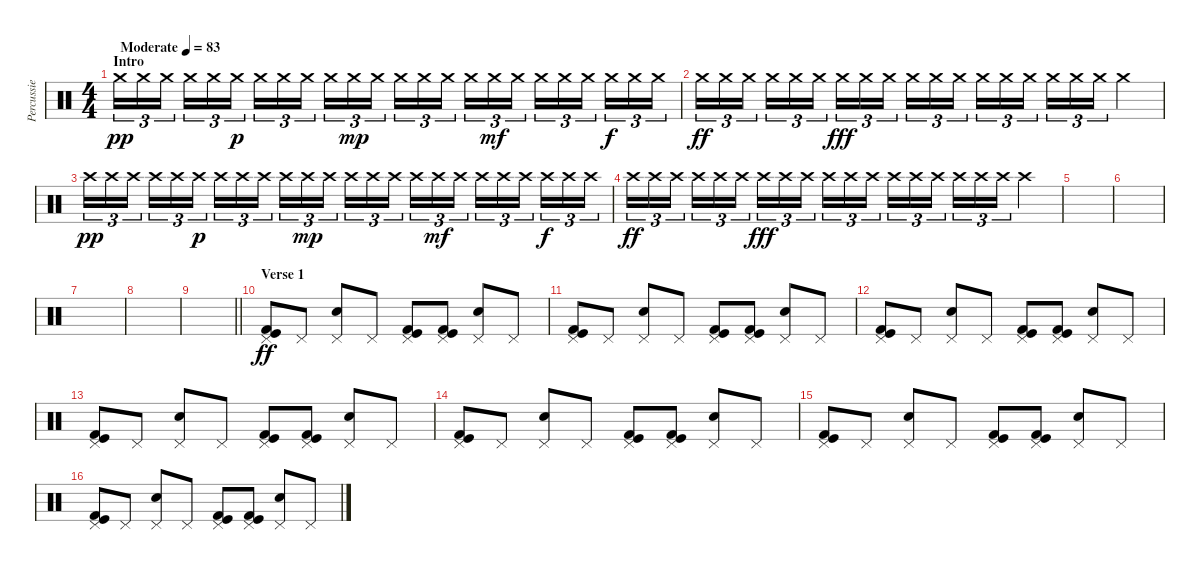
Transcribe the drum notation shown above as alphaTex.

\track ("Percussie" "Percussie") {instrument percussion}
\staff {score}
\articulation defaults
\ts (4 4)
\section ("" "Intro")
\tempo (83 "Moderate")
\clef neutral
\ks c "Crash medium (hit)".16{tu (3 2) dy pp} "Crash medium (hit)".16{tu (3 2)} "Crash medium (hit)".16{tu (3 2) beam splitsecondary} "Crash medium (hit)".16{tu (3 2)} "Crash medium (hit)".16{tu (3 2)} "Crash medium (hit)".16{tu (3 2) dy p} "Crash medium (hit)".16{tu (3 2)} "Crash medium (hit)".16{tu (3 2)} "Crash medium (hit)".16{tu (3 2) beam splitsecondary} "Crash medium (hit)".16{tu (3 2)} "Crash medium (hit)".16{tu (3 2) dy mp} "Crash medium (hit)".16{tu (3 2)} "Crash medium (hit)".16{tu (3 2)} "Crash medium (hit)".16{tu (3 2)} "Crash medium (hit)".16{tu (3 2) beam splitsecondary} "Crash medium (hit)".16{tu (3 2)} "Crash medium (hit)".16{tu (3 2) dy mf} "Crash medium (hit)".16{tu (3 2)} "Crash medium (hit)".16{tu (3 2)} "Crash medium (hit)".16{tu (3 2)} "Crash medium (hit)".16{tu (3 2) beam splitsecondary} "Crash medium (hit)".16{tu (3 2) dy f} "Crash medium (hit)".16{tu (3 2)} "Crash medium (hit)".16{tu (3 2)}
|
"Crash medium (hit)".16{tu (3 2) dy ff} "Crash medium (hit)".16{tu (3 2)} "Crash medium (hit)".16{tu (3 2) beam splitsecondary} "Crash medium (hit)".16{tu (3 2)} "Crash medium (hit)".16{tu (3 2)} "Crash medium (hit)".16{tu (3 2)} "Crash medium (hit)".16{tu (3 2) dy fff} "Crash medium (hit)".16{tu (3 2)} "Crash medium (hit)".16{tu (3 2) beam splitsecondary} "Crash medium (hit)".16{tu (3 2)} "Crash medium (hit)".16{tu (3 2)} "Crash medium (hit)".16{tu (3 2)} "Crash medium (hit)".16{tu (3 2)} "Crash medium (hit)".16{tu (3 2)} "Crash medium (hit)".16{tu (3 2) beam splitsecondary} "Crash medium (hit)".16{tu (3 2)} "Crash medium (hit)".16{tu (3 2)} "Crash medium (hit)".16{tu (3 2)} "Crash medium (hit)".4 |
"Crash high (hit)".16{tu (3 2) dy pp} "Crash high (hit)".16{tu (3 2)} "Crash high (hit)".16{tu (3 2) beam splitsecondary} "Crash high (hit)".16{tu (3 2)} "Crash high (hit)".16{tu (3 2)} "Crash high (hit)".16{tu (3 2) dy p} "Crash high (hit)".16{tu (3 2)} "Crash high (hit)".16{tu (3 2)} "Crash high (hit)".16{tu (3 2) beam splitsecondary} "Crash high (hit)".16{tu (3 2)} "Crash high (hit)".16{tu (3 2) dy mp} "Crash high (hit)".16{tu (3 2)} "Crash high (hit)".16{tu (3 2)} "Crash high (hit)".16{tu (3 2)} "Crash high (hit)".16{tu (3 2) beam splitsecondary} "Crash high (hit)".16{tu (3 2)} "Crash high (hit)".16{tu (3 2) dy mf} "Crash high (hit)".16{tu (3 2)} "Crash high (hit)".16{tu (3 2)} "Crash high (hit)".16{tu (3 2)} "Crash high (hit)".16{tu (3 2) beam splitsecondary} "Crash high (hit)".16{tu (3 2) dy f} "Crash high (hit)".16{tu (3 2)} "Crash high (hit)".16{tu (3 2)} |
"Crash high (hit)".16{tu (3 2) dy ff} "Crash high (hit)".16{tu (3 2)} "Crash high (hit)".16{tu (3 2) beam splitsecondary} "Crash high (hit)".16{tu (3 2)} "Crash high (hit)".16{tu (3 2)} "Crash high (hit)".16{tu (3 2)} "Crash high (hit)".16{tu (3 2) dy fff} "Crash high (hit)".16{tu (3 2)} "Crash high (hit)".16{tu (3 2) beam splitsecondary} "Crash high (hit)".16{tu (3 2)} "Crash high (hit)".16{tu (3 2)} "Crash high (hit)".16{tu (3 2)} "Crash high (hit)".16{tu (3 2)} "Crash high (hit)".16{tu (3 2)} "Crash high (hit)".16{tu (3 2) beam splitsecondary} "Crash high (hit)".16{tu (3 2)} "Crash high (hit)".16{tu (3 2)} "Crash high (hit)".16{tu (3 2)} "Crash high (hit)".4 |
|
|
|
|
\barLineRight lightlight
|
\section ("" "Verse 1")
("Pedal Hi-Hat (hit)" "Kick (hit)" "Kick (hit) 2").8{dy ff} "Pedal Hi-Hat (hit)".8 ("Pedal Hi-Hat (hit)" "Snare (hit) 2").8 "Pedal Hi-Hat (hit)".8 ("Pedal Hi-Hat (hit)" "Kick (hit)" "Kick (hit) 2").8 ("Pedal Hi-Hat (hit)" "Kick (hit)" "Kick (hit) 2").8 ("Pedal Hi-Hat (hit)" "Snare (hit) 2").8 "Pedal Hi-Hat (hit)".8 |
("Pedal Hi-Hat (hit)" "Kick (hit)" "Kick (hit) 2").8 "Pedal Hi-Hat (hit)".8 ("Pedal Hi-Hat (hit)" "Snare (hit) 2").8 "Pedal Hi-Hat (hit)".8 ("Pedal Hi-Hat (hit)" "Kick (hit)" "Kick (hit) 2").8 ("Pedal Hi-Hat (hit)" "Kick (hit)" "Kick (hit) 2").8 ("Pedal Hi-Hat (hit)" "Snare (hit) 2").8 "Pedal Hi-Hat (hit)".8 |
("Pedal Hi-Hat (hit)" "Kick (hit)" "Kick (hit) 2").8 "Pedal Hi-Hat (hit)".8 ("Pedal Hi-Hat (hit)" "Snare (hit) 2").8 "Pedal Hi-Hat (hit)".8 ("Pedal Hi-Hat (hit)" "Kick (hit)" "Kick (hit) 2").8 ("Pedal Hi-Hat (hit)" "Kick (hit)" "Kick (hit) 2").8 ("Pedal Hi-Hat (hit)" "Snare (hit) 2").8 "Pedal Hi-Hat (hit)".8 |
("Pedal Hi-Hat (hit)" "Kick (hit)" "Kick (hit) 2").8 "Pedal Hi-Hat (hit)".8 ("Pedal Hi-Hat (hit)" "Snare (hit) 2").8 "Pedal Hi-Hat (hit)".8 ("Pedal Hi-Hat (hit)" "Kick (hit)" "Kick (hit) 2").8 ("Pedal Hi-Hat (hit)" "Kick (hit)" "Kick (hit) 2").8 ("Pedal Hi-Hat (hit)" "Snare (hit) 2").8 "Pedal Hi-Hat (hit)".8 |
("Pedal Hi-Hat (hit)" "Kick (hit)" "Kick (hit) 2").8 "Pedal Hi-Hat (hit)".8 ("Pedal Hi-Hat (hit)" "Snare (hit) 2").8 "Pedal Hi-Hat (hit)".8 ("Pedal Hi-Hat (hit)" "Kick (hit)" "Kick (hit) 2").8 ("Pedal Hi-Hat (hit)" "Kick (hit)" "Kick (hit) 2").8 ("Pedal Hi-Hat (hit)" "Snare (hit) 2").8 "Pedal Hi-Hat (hit)".8 |
("Pedal Hi-Hat (hit)" "Kick (hit)" "Kick (hit) 2").8 "Pedal Hi-Hat (hit)".8 ("Pedal Hi-Hat (hit)" "Snare (hit) 2").8 "Pedal Hi-Hat (hit)".8 ("Pedal Hi-Hat (hit)" "Kick (hit)" "Kick (hit) 2").8 ("Pedal Hi-Hat (hit)" "Kick (hit)" "Kick (hit) 2").8 ("Pedal Hi-Hat (hit)" "Snare (hit) 2").8 "Pedal Hi-Hat (hit)".8 |
("Pedal Hi-Hat (hit)" "Kick (hit)" "Kick (hit) 2").8 "Pedal Hi-Hat (hit)".8 ("Pedal Hi-Hat (hit)" "Snare (hit) 2").8 "Pedal Hi-Hat (hit)".8 ("Pedal Hi-Hat (hit)" "Kick (hit)" "Kick (hit) 2").8 ("Pedal Hi-Hat (hit)" "Kick (hit)" "Kick (hit) 2").8 ("Pedal Hi-Hat (hit)" "Snare (hit) 2").8 "Pedal Hi-Hat (hit)".8
